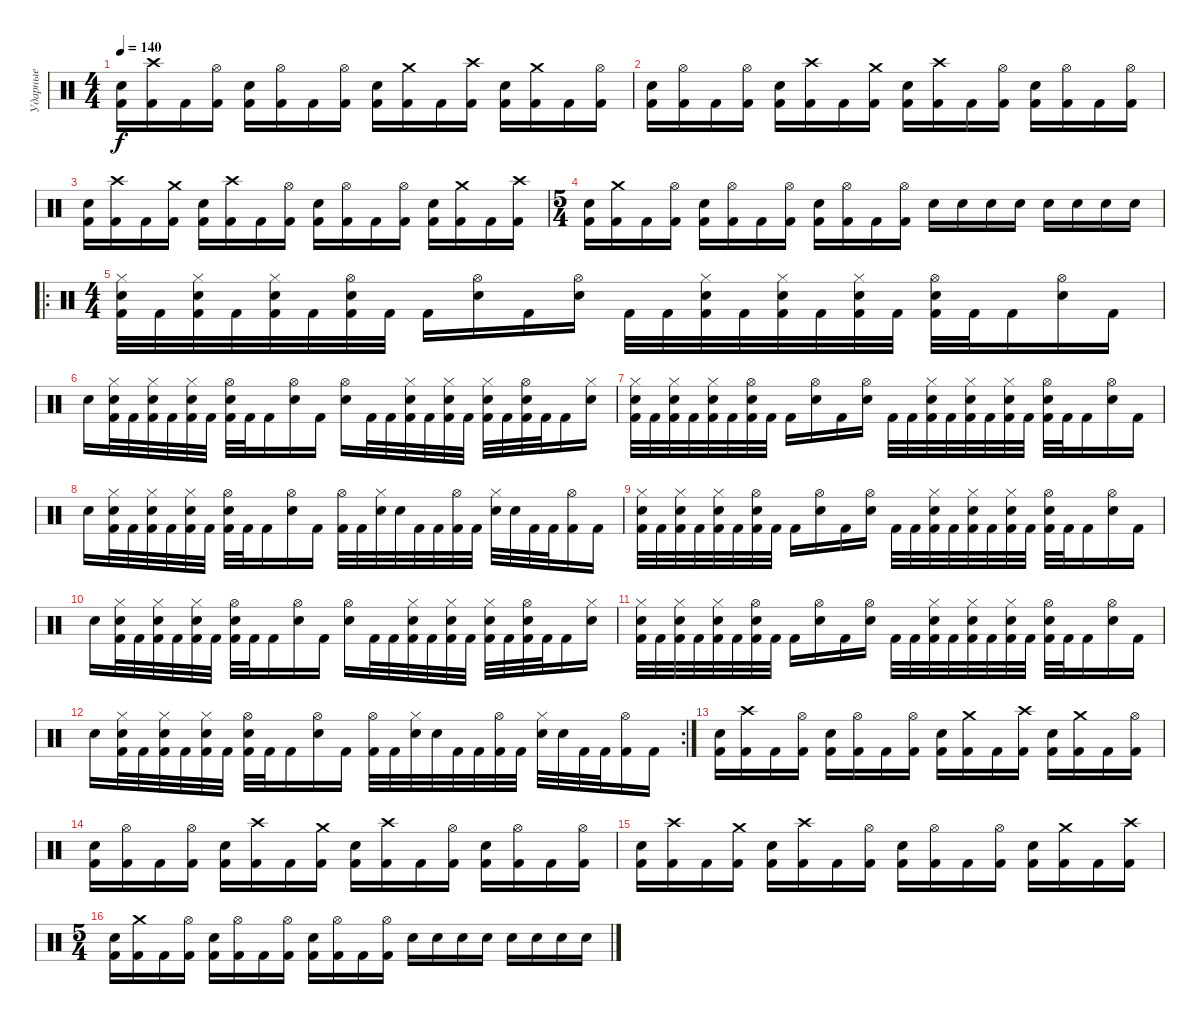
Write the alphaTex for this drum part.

\track ("Ударные" "Ударные") {instrument percussion}
\staff {score}
\articulation defaults
\ts (4 4)
\tempo 140
\clef neutral
\ks c
("Electric Snare (hit)" "Kick (hit) 2").16{dy f} ("Crash high (hit)" "Kick (hit) 2").16 "Kick (hit) 2".16 ("Hi-Hat (open)" "Kick (hit) 2").16 ("Electric Snare (hit)" "Kick (hit) 2").16 ("Hi-Hat (open)" "Kick (hit) 2").16 "Kick (hit) 2".16 ("Hi-Hat (open)" "Kick (hit) 2").16 ("Electric Snare (hit)" "Kick (hit) 2").16 ("Crash medium (hit)" "Kick (hit) 2").16 "Kick (hit) 2".16 ("Crash high (hit)" "Kick (hit) 2").16 ("Electric Snare (hit)" "Kick (hit) 2").16 ("Crash medium (hit)" "Kick (hit) 2").16 "Kick (hit) 2".16 ("Hi-Hat (open)" "Kick (hit) 2").16 |
("Electric Snare (hit)" "Kick (hit) 2").16 ("Hi-Hat (open)" "Kick (hit) 2").16 "Kick (hit) 2".16 ("Hi-Hat (open)" "Kick (hit) 2").16 ("Electric Snare (hit)" "Kick (hit) 2").16 ("Crash high (hit)" "Kick (hit) 2").16 "Kick (hit) 2".16 ("Crash medium (hit)" "Kick (hit) 2").16 ("Electric Snare (hit)" "Kick (hit) 2").16 ("Crash high (hit)" "Kick (hit) 2").16 "Kick (hit) 2".16 ("Hi-Hat (open)" "Kick (hit) 2").16 ("Electric Snare (hit)" "Kick (hit) 2").16 ("Hi-Hat (open)" "Kick (hit) 2").16 "Kick (hit) 2".16 ("Hi-Hat (open)" "Kick (hit) 2").16 |
("Electric Snare (hit)" "Kick (hit) 2").16 ("Crash high (hit)" "Kick (hit) 2").16 "Kick (hit) 2".16 ("Crash medium (hit)" "Kick (hit) 2").16 ("Electric Snare (hit)" "Kick (hit) 2").16 ("Crash high (hit)" "Kick (hit) 2").16 "Kick (hit) 2".16 ("Hi-Hat (open)" "Kick (hit) 2").16 ("Electric Snare (hit)" "Kick (hit) 2").16 ("Hi-Hat (open)" "Kick (hit) 2").16 "Kick (hit) 2".16 ("Hi-Hat (open)" "Kick (hit) 2").16 ("Electric Snare (hit)" "Kick (hit) 2").16 ("Crash medium (hit)" "Kick (hit) 2").16 "Kick (hit) 2".16 ("Crash high (hit)" "Kick (hit) 2").16 |
\ts (5 4)
("Electric Snare (hit)" "Kick (hit) 2").16 ("Crash medium (hit)" "Kick (hit) 2").16 "Kick (hit) 2".16 ("Hi-Hat (open)" "Kick (hit) 2").16 ("Electric Snare (hit)" "Kick (hit) 2").16 ("Hi-Hat (open)" "Kick (hit) 2").16 "Kick (hit) 2".16 ("Hi-Hat (open)" "Kick (hit) 2").16 ("Electric Snare (hit)" "Kick (hit) 2").16 ("Hi-Hat (open)" "Kick (hit) 2").16 "Kick (hit) 2".16 ("Hi-Hat (open)" "Kick (hit) 2").16 "Electric Snare (hit)".16 "Electric Snare (hit)".16 "Electric Snare (hit)".16 "Electric Snare (hit)".16 "Electric Snare (hit)".16 "Electric Snare (hit)".16 "Electric Snare (hit)".16 "Electric Snare (hit)".16 |
\ro
\ts (4 4)
("Hi-Hat (closed)" "Electric Snare (hit)" "Kick (hit) 2").32 "Kick (hit) 2".32 ("Hi-Hat (closed)" "Electric Snare (hit)" "Kick (hit) 2").32 "Kick (hit) 2".32 ("Hi-Hat (closed)" "Electric Snare (hit)" "Kick (hit) 2").32 "Kick (hit) 2".32 ("Hi-Hat (open)" "Electric Snare (hit)" "Kick (hit) 2").32 "Kick (hit) 2".32 "Kick (hit) 2".16 ("Hi-Hat (open)" "Electric Snare (hit)").16 "Kick (hit) 2".16 ("Hi-Hat (open)" "Electric Snare (hit)").16 "Kick (hit) 2".32 "Kick (hit) 2".32 ("Hi-Hat (closed)" "Electric Snare (hit)" "Kick (hit) 2").32 "Kick (hit) 2".32 ("Hi-Hat (closed)" "Electric Snare (hit)" "Kick (hit) 2").32 "Kick (hit) 2".32 ("Hi-Hat (closed)" "Electric Snare (hit)" "Kick (hit) 2").32 "Kick (hit) 2".32 ("Hi-Hat (open)" "Electric Snare (hit)" "Kick (hit) 2").32 "Kick (hit) 2".32 "Kick (hit) 2".16 ("Hi-Hat (open)" "Electric Snare (hit)").16 "Kick (hit) 2".16 |
"Electric Snare (hit)".16 ("Hi-Hat (closed)" "Electric Snare (hit)" "Kick (hit) 2").32 "Kick (hit) 2".32 ("Hi-Hat (closed)" "Electric Snare (hit)" "Kick (hit) 2").32 "Kick (hit) 2".32 ("Hi-Hat (closed)" "Electric Snare (hit)" "Kick (hit) 2").32 "Kick (hit) 2".32 ("Hi-Hat (open)" "Electric Snare (hit)" "Kick (hit) 2").32 "Kick (hit) 2".32 "Kick (hit) 2".16 ("Hi-Hat (open)" "Electric Snare (hit)").16 "Kick (hit) 2".16 ("Hi-Hat (open)" "Electric Snare (hit)").16 "Kick (hit) 2".32 "Kick (hit) 2".32 ("Hi-Hat (closed)" "Electric Snare (hit)" "Kick (hit) 2").32 "Kick (hit) 2".32 ("Hi-Hat (closed)" "Electric Snare (hit)" "Kick (hit) 2").32 "Kick (hit) 2".32 ("Hi-Hat (closed)" "Electric Snare (hit)" "Kick (hit) 2").32 "Kick (hit) 2".32 ("Hi-Hat (open)" "Electric Snare (hit)" "Kick (hit) 2").32 "Kick (hit) 2".32 "Kick (hit) 2".16 ("Hi-Hat (closed)" "Electric Snare (hit)").16 |
("Hi-Hat (closed)" "Electric Snare (hit)" "Kick (hit) 2").32 "Kick (hit) 2".32 ("Hi-Hat (closed)" "Electric Snare (hit)" "Kick (hit) 2").32 "Kick (hit) 2".32 ("Hi-Hat (closed)" "Electric Snare (hit)" "Kick (hit) 2").32 "Kick (hit) 2".32 ("Hi-Hat (open)" "Electric Snare (hit)" "Kick (hit) 2").32 "Kick (hit) 2".32 "Kick (hit) 2".16 ("Hi-Hat (open)" "Electric Snare (hit)").16 "Kick (hit) 2".16 ("Hi-Hat (open)" "Electric Snare (hit)").16 "Kick (hit) 2".32 "Kick (hit) 2".32 ("Hi-Hat (closed)" "Electric Snare (hit)" "Kick (hit) 2").32 "Kick (hit) 2".32 ("Hi-Hat (closed)" "Electric Snare (hit)" "Kick (hit) 2").32 "Kick (hit) 2".32 ("Hi-Hat (closed)" "Electric Snare (hit)" "Kick (hit) 2").32 "Kick (hit) 2".32 ("Hi-Hat (open)" "Electric Snare (hit)" "Kick (hit) 2").32 "Kick (hit) 2".32 "Kick (hit) 2".16 ("Hi-Hat (open)" "Electric Snare (hit)").16 "Kick (hit) 2".16 |
"Electric Snare (hit)".16 ("Hi-Hat (closed)" "Electric Snare (hit)" "Kick (hit) 2").32 "Kick (hit) 2".32 ("Hi-Hat (closed)" "Electric Snare (hit)" "Kick (hit) 2").32 "Kick (hit) 2".32 ("Hi-Hat (closed)" "Electric Snare (hit)" "Kick (hit) 2").32 "Kick (hit) 2".32 ("Hi-Hat (open)" "Electric Snare (hit)" "Kick (hit) 2").32 "Kick (hit) 2".32 "Kick (hit) 2".16 ("Hi-Hat (open)" "Electric Snare (hit)").16 "Kick (hit) 2".16 ("Hi-Hat (open)" "Kick (hit) 2").32 "Kick (hit) 2".32 ("Hi-Hat (closed)" "Electric Snare (hit)").32 "Electric Snare (hit)".32 "Kick (hit) 2".32 "Kick (hit) 2".32 ("Hi-Hat (open)" "Kick (hit) 2").32 "Kick (hit) 2".32 ("Hi-Hat (closed)" "Electric Snare (hit)").32 "Electric Snare (hit)".32 "Kick (hit) 2".32 "Kick (hit) 2".32 ("Hi-Hat (open)" "Kick (hit) 2").16 "Kick (hit) 2".16 |
("Hi-Hat (closed)" "Electric Snare (hit)" "Kick (hit) 2").32 "Kick (hit) 2".32 ("Hi-Hat (closed)" "Electric Snare (hit)" "Kick (hit) 2").32 "Kick (hit) 2".32 ("Hi-Hat (closed)" "Electric Snare (hit)" "Kick (hit) 2").32 "Kick (hit) 2".32 ("Hi-Hat (open)" "Electric Snare (hit)" "Kick (hit) 2").32 "Kick (hit) 2".32 "Kick (hit) 2".16 ("Hi-Hat (open)" "Electric Snare (hit)").16 "Kick (hit) 2".16 ("Hi-Hat (open)" "Electric Snare (hit)").16 "Kick (hit) 2".32 "Kick (hit) 2".32 ("Hi-Hat (closed)" "Electric Snare (hit)" "Kick (hit) 2").32 "Kick (hit) 2".32 ("Hi-Hat (closed)" "Electric Snare (hit)" "Kick (hit) 2").32 "Kick (hit) 2".32 ("Hi-Hat (closed)" "Electric Snare (hit)" "Kick (hit) 2").32 "Kick (hit) 2".32 ("Hi-Hat (open)" "Electric Snare (hit)" "Kick (hit) 2").32 "Kick (hit) 2".32 "Kick (hit) 2".16 ("Hi-Hat (open)" "Electric Snare (hit)").16 "Kick (hit) 2".16 |
"Electric Snare (hit)".16 ("Hi-Hat (closed)" "Electric Snare (hit)" "Kick (hit) 2").32 "Kick (hit) 2".32 ("Hi-Hat (closed)" "Electric Snare (hit)" "Kick (hit) 2").32 "Kick (hit) 2".32 ("Hi-Hat (closed)" "Electric Snare (hit)" "Kick (hit) 2").32 "Kick (hit) 2".32 ("Hi-Hat (open)" "Electric Snare (hit)" "Kick (hit) 2").32 "Kick (hit) 2".32 "Kick (hit) 2".16 ("Hi-Hat (open)" "Electric Snare (hit)").16 "Kick (hit) 2".16 ("Hi-Hat (open)" "Electric Snare (hit)").16 "Kick (hit) 2".32 "Kick (hit) 2".32 ("Hi-Hat (closed)" "Electric Snare (hit)" "Kick (hit) 2").32 "Kick (hit) 2".32 ("Hi-Hat (closed)" "Electric Snare (hit)" "Kick (hit) 2").32 "Kick (hit) 2".32 ("Hi-Hat (closed)" "Electric Snare (hit)" "Kick (hit) 2").32 "Kick (hit) 2".32 ("Hi-Hat (open)" "Electric Snare (hit)" "Kick (hit) 2").32 "Kick (hit) 2".32 "Kick (hit) 2".16 ("Hi-Hat (closed)" "Electric Snare (hit)").16 |
("Hi-Hat (closed)" "Electric Snare (hit)" "Kick (hit) 2").32 "Kick (hit) 2".32 ("Hi-Hat (closed)" "Electric Snare (hit)" "Kick (hit) 2").32 "Kick (hit) 2".32 ("Hi-Hat (closed)" "Electric Snare (hit)" "Kick (hit) 2").32 "Kick (hit) 2".32 ("Hi-Hat (open)" "Electric Snare (hit)" "Kick (hit) 2").32 "Kick (hit) 2".32 "Kick (hit) 2".16 ("Hi-Hat (open)" "Electric Snare (hit)").16 "Kick (hit) 2".16 ("Hi-Hat (open)" "Electric Snare (hit)").16 "Kick (hit) 2".32 "Kick (hit) 2".32 ("Hi-Hat (closed)" "Electric Snare (hit)" "Kick (hit) 2").32 "Kick (hit) 2".32 ("Hi-Hat (closed)" "Electric Snare (hit)" "Kick (hit) 2").32 "Kick (hit) 2".32 ("Hi-Hat (closed)" "Electric Snare (hit)" "Kick (hit) 2").32 "Kick (hit) 2".32 ("Hi-Hat (open)" "Electric Snare (hit)" "Kick (hit) 2").32 "Kick (hit) 2".32 "Kick (hit) 2".16 ("Hi-Hat (open)" "Electric Snare (hit)").16 "Kick (hit) 2".16 |
\rc 2 "Electric Snare (hit)".16
("Hi-Hat (closed)" "Electric Snare (hit)" "Kick (hit) 2").32 "Kick (hit) 2".32 ("Hi-Hat (closed)" "Electric Snare (hit)" "Kick (hit) 2").32 "Kick (hit) 2".32 ("Hi-Hat (closed)" "Electric Snare (hit)" "Kick (hit) 2").32 "Kick (hit) 2".32 ("Hi-Hat (open)" "Electric Snare (hit)" "Kick (hit) 2").32 "Kick (hit) 2".32 "Kick (hit) 2".16 ("Hi-Hat (open)" "Electric Snare (hit)").16 "Kick (hit) 2".16 ("Hi-Hat (open)" "Kick (hit) 2").32 "Kick (hit) 2".32 ("Hi-Hat (closed)" "Electric Snare (hit)").32 "Electric Snare (hit)".32 "Kick (hit) 2".32 "Kick (hit) 2".32 ("Hi-Hat (open)" "Kick (hit) 2").32 "Kick (hit) 2".32 ("Hi-Hat (closed)" "Electric Snare (hit)").32 "Electric Snare (hit)".32 "Kick (hit) 2".32 "Kick (hit) 2".32 ("Hi-Hat (open)" "Kick (hit) 2").16 "Kick (hit) 2".16 |
("Electric Snare (hit)" "Kick (hit) 2").16 ("Crash high (hit)" "Kick (hit) 2").16 "Kick (hit) 2".16 ("Hi-Hat (open)" "Kick (hit) 2").16 ("Electric Snare (hit)" "Kick (hit) 2").16 ("Hi-Hat (open)" "Kick (hit) 2").16 "Kick (hit) 2".16 ("Hi-Hat (open)" "Kick (hit) 2").16 ("Electric Snare (hit)" "Kick (hit) 2").16 ("Crash medium (hit)" "Kick (hit) 2").16 "Kick (hit) 2".16 ("Crash high (hit)" "Kick (hit) 2").16 ("Electric Snare (hit)" "Kick (hit) 2").16 ("Crash medium (hit)" "Kick (hit) 2").16 "Kick (hit) 2".16 ("Hi-Hat (open)" "Kick (hit) 2").16 |
("Electric Snare (hit)" "Kick (hit) 2").16 ("Hi-Hat (open)" "Kick (hit) 2").16 "Kick (hit) 2".16 ("Hi-Hat (open)" "Kick (hit) 2").16 ("Electric Snare (hit)" "Kick (hit) 2").16 ("Crash high (hit)" "Kick (hit) 2").16 "Kick (hit) 2".16 ("Crash medium (hit)" "Kick (hit) 2").16 ("Electric Snare (hit)" "Kick (hit) 2").16 ("Crash high (hit)" "Kick (hit) 2").16 "Kick (hit) 2".16 ("Hi-Hat (open)" "Kick (hit) 2").16 ("Electric Snare (hit)" "Kick (hit) 2").16 ("Hi-Hat (open)" "Kick (hit) 2").16 "Kick (hit) 2".16 ("Hi-Hat (open)" "Kick (hit) 2").16 |
("Electric Snare (hit)" "Kick (hit) 2").16 ("Crash high (hit)" "Kick (hit) 2").16 "Kick (hit) 2".16 ("Crash medium (hit)" "Kick (hit) 2").16 ("Electric Snare (hit)" "Kick (hit) 2").16 ("Crash high (hit)" "Kick (hit) 2").16 "Kick (hit) 2".16 ("Hi-Hat (open)" "Kick (hit) 2").16 ("Electric Snare (hit)" "Kick (hit) 2").16 ("Hi-Hat (open)" "Kick (hit) 2").16 "Kick (hit) 2".16 ("Hi-Hat (open)" "Kick (hit) 2").16 ("Electric Snare (hit)" "Kick (hit) 2").16 ("Crash medium (hit)" "Kick (hit) 2").16 "Kick (hit) 2".16 ("Crash high (hit)" "Kick (hit) 2").16 |
\ts (5 4)
("Electric Snare (hit)" "Kick (hit) 2").16 ("Crash medium (hit)" "Kick (hit) 2").16 "Kick (hit) 2".16 ("Hi-Hat (open)" "Kick (hit) 2").16 ("Electric Snare (hit)" "Kick (hit) 2").16 ("Hi-Hat (open)" "Kick (hit) 2").16 "Kick (hit) 2".16 ("Hi-Hat (open)" "Kick (hit) 2").16 ("Electric Snare (hit)" "Kick (hit) 2").16 ("Hi-Hat (open)" "Kick (hit) 2").16 "Kick (hit) 2".16 ("Hi-Hat (open)" "Kick (hit) 2").16 "Electric Snare (hit)".16 "Electric Snare (hit)".16 "Electric Snare (hit)".16 "Electric Snare (hit)".16 "Electric Snare (hit)".16 "Electric Snare (hit)".16 "Electric Snare (hit)".16 "Electric Snare (hit)".16
